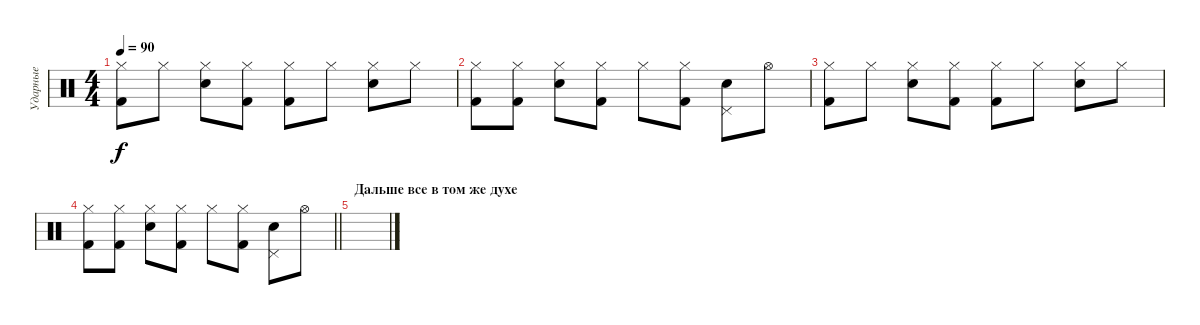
\track ("Ударные" "Ударные") {instrument percussion}
\staff {score}
\articulation defaults
\ts (4 4)
\tempo 90
\clef neutral
\ks c
("Kick (hit) 2" "Hi-Hat (closed)").8{dy f} "Hi-Hat (closed)".8 ("Electric Snare (hit)" "Hi-Hat (closed)").8 ("Kick (hit) 2" "Hi-Hat (closed)").8 ("Kick (hit) 2" "Hi-Hat (closed)").8 "Hi-Hat (closed)".8 ("Snare (hit) 2" "Hi-Hat (closed)").8 "Hi-Hat (closed)".8 |
("Kick (hit) 2" "Hi-Hat (closed)").8 ("Kick (hit) 2" "Hi-Hat (closed)").8 ("Electric Snare (hit)" "Hi-Hat (closed)").8 ("Kick (hit) 2" "Hi-Hat (closed)").8 "Hi-Hat (closed)".8 ("Kick (hit) 2" "Hi-Hat (closed)").8 ("Snare (hit) 2" "Pedal Hi-Hat (hit)").8 "Hi-Hat (open)".8 |
("Kick (hit) 2" "Hi-Hat (closed)").8 "Hi-Hat (closed)".8 ("Electric Snare (hit)" "Hi-Hat (closed)").8 ("Kick (hit) 2" "Hi-Hat (closed)").8 ("Kick (hit) 2" "Hi-Hat (closed)").8 "Hi-Hat (closed)".8 ("Snare (hit) 2" "Hi-Hat (closed)").8 "Hi-Hat (closed)".8 |
\barLineRight lightlight
("Kick (hit) 2" "Hi-Hat (closed)").8 ("Kick (hit) 2" "Hi-Hat (closed)").8 ("Electric Snare (hit)" "Hi-Hat (closed)").8 ("Kick (hit) 2" "Hi-Hat (closed)").8 "Hi-Hat (closed)".8 ("Kick (hit) 2" "Hi-Hat (closed)").8 ("Snare (hit) 2" "Pedal Hi-Hat (hit)").8 "Hi-Hat (open)".8 |
\section ("" "Дальше все в том же духе ")
